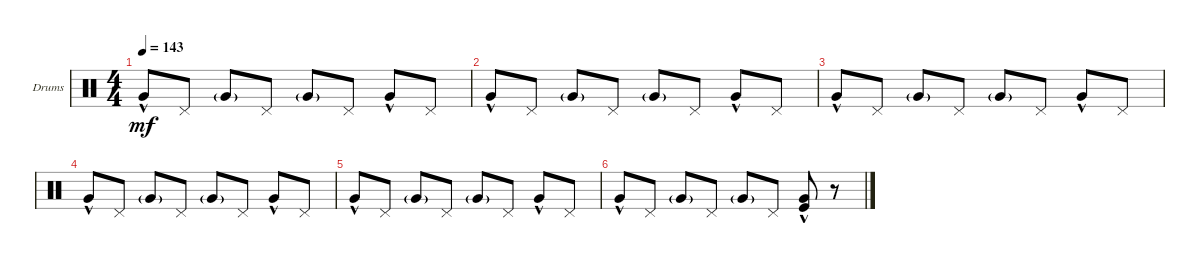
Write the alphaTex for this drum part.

\defaultSystemsLayout 4
\bracketExtendMode groupsimilarinstruments
\firstSystemTrackNameOrientation horizontal
\otherSystemsTrackNameOrientation horizontal
\track ("Drumkit" "Drums") {instrument percussion}
\staff {score}
\articulation defaults
\ts (4 4)
\tempo 143
\clef neutral
\ks c "Very Low Tom (hit)"{hac}.8{dy mf} "Pedal Hi-Hat (hit)".8 "Very Low Tom (hit)"{g}.8 "Pedal Hi-Hat (hit)".8 "Very Low Tom (hit)"{g}.8 "Pedal Hi-Hat (hit)".8 "Very Low Tom (hit)"{hac}.8 "Pedal Hi-Hat (hit)".8
|
"Very Low Tom (hit)"{hac}.8 "Pedal Hi-Hat (hit)".8 "Very Low Tom (hit)"{g}.8 "Pedal Hi-Hat (hit)".8 "Very Low Tom (hit)"{g}.8 "Pedal Hi-Hat (hit)".8 "Very Low Tom (hit)"{hac}.8 "Pedal Hi-Hat (hit)".8 |
"Very Low Tom (hit)"{hac}.8 "Pedal Hi-Hat (hit)".8 "Very Low Tom (hit)"{g}.8 "Pedal Hi-Hat (hit)".8 "Very Low Tom (hit)"{g}.8 "Pedal Hi-Hat (hit)".8 "Very Low Tom (hit)"{hac}.8 "Pedal Hi-Hat (hit)".8 |
"Very Low Tom (hit)"{hac}.8 "Pedal Hi-Hat (hit)".8 "Very Low Tom (hit)"{g}.8 "Pedal Hi-Hat (hit)".8 "Very Low Tom (hit)"{g}.8 "Pedal Hi-Hat (hit)".8 "Very Low Tom (hit)"{hac}.8 "Pedal Hi-Hat (hit)".8 |
"Very Low Tom (hit)"{hac}.8 "Pedal Hi-Hat (hit)".8 "Very Low Tom (hit)"{g}.8 "Pedal Hi-Hat (hit)".8 "Very Low Tom (hit)"{g}.8 "Pedal Hi-Hat (hit)".8 "Very Low Tom (hit)"{hac}.8 "Pedal Hi-Hat (hit)".8 |
"Very Low Tom (hit)"{hac}.8 "Pedal Hi-Hat (hit)".8 "Very Low Tom (hit)"{g}.8 "Pedal Hi-Hat (hit)".8 "Very Low Tom (hit)"{g}.8 "Pedal Hi-Hat (hit)".8 ("Very Low Tom (hit)"{hac} "Kick (hit)").8 r.8
